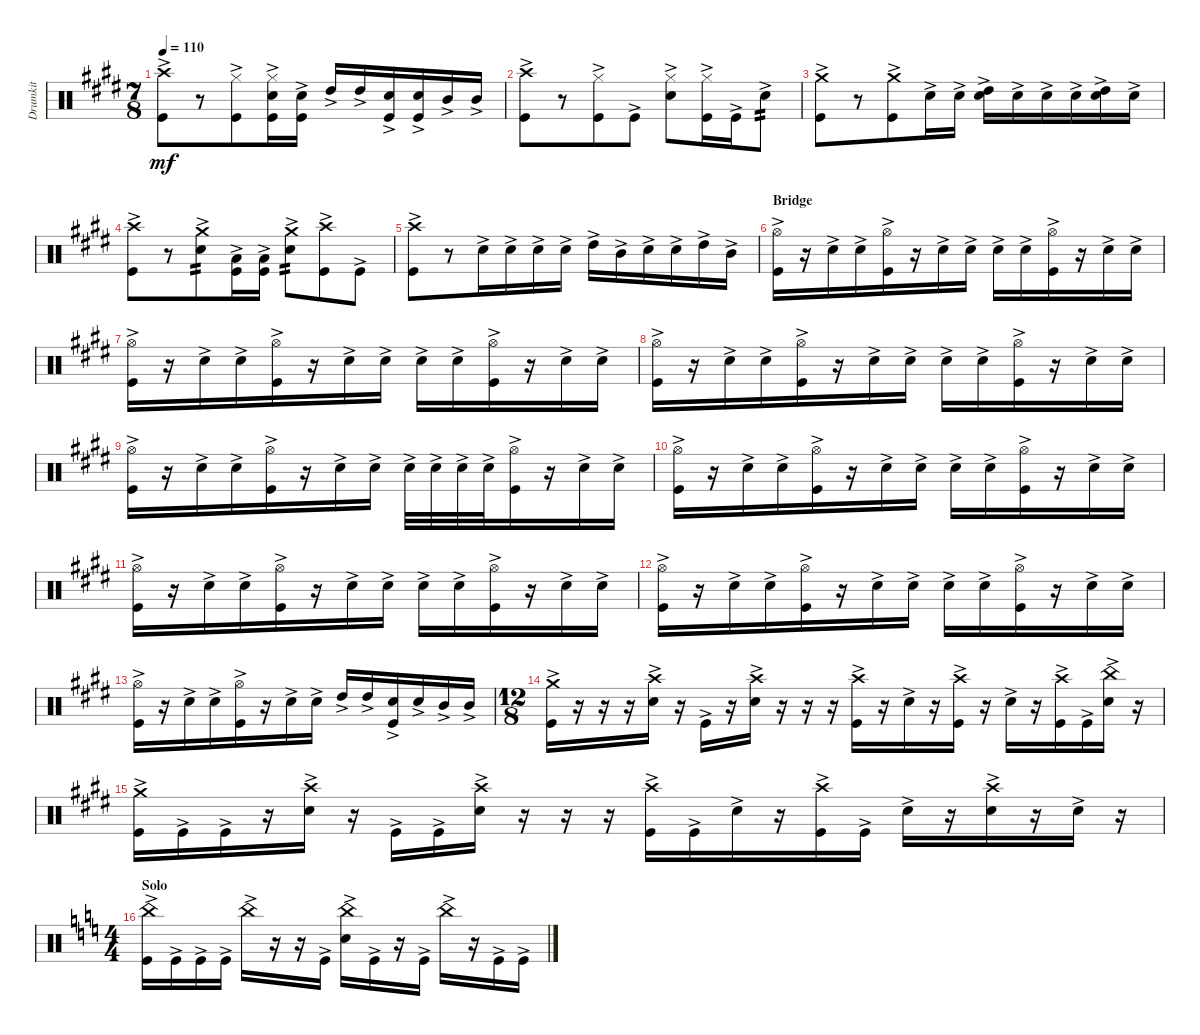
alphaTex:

\track ("Drumkit" "Drumkit") {instrument percussion}
\staff {score}
\articulation defaults
\ts (7 8)
\tempo 110
\clef neutral
\ks c#minor
("Crash high (hit)"{ac} "Kick (hit)"{ac}).8{dy mf} r.8 ("Hi-Hat (closed)"{ac} "Kick (hit)"{ac}).8 ("Hi-Hat (closed)"{ac} "Snare (hit) 2"{ac} "Kick (hit)"{ac}).16 ("Snare (hit) 2"{ac} "Kick (hit)"{ac}).16 "High Tom (hit)"{ac}.16 "High Tom (hit)"{ac}.16 ("Snare (hit) 2"{ac} "Kick (hit)"{ac}).16 ("Snare (hit) 2"{ac} "Kick (hit)"{ac}).16 "Mid Tom (hit)"{ac}.16 "Mid Tom (hit)"{ac}.16 |
("Crash high (hit)"{ac} "Kick (hit)"{ac}).8 r.8 ("Hi-Hat (closed)"{ac} "Kick (hit)"{ac}).8 "Kick (hit)"{ac}.8 ("Hi-Hat (closed)"{ac} "Snare (hit) 2"{ac}).8 ("Hi-Hat (closed)"{ac} "Kick (hit)"{ac}).16 "Kick (hit)"{ac}.16 "Snare (hit) 2"{ac}.8{tp 2} |
("Crash medium (hit)"{ac} "Kick (hit)"{ac}).8 r.8 ("Crash medium (hit)"{ac} "Kick (hit)"{ac}).8 "Snare (hit) 2"{ac}.16 "Snare (hit) 2"{ac}.16 ("High Tom (hit)"{ac} "Snare (hit) 2"{ac}).16 "Snare (hit) 2"{ac}.16 "Snare (hit) 2"{ac}.16 "Snare (hit) 2"{ac}.16 ("High Tom (hit)"{ac} "Snare (hit) 2"{ac}).16 "Snare (hit) 2"{ac}.16 |
("Crash high (hit)"{ac} "Kick (hit)"{ac}).8 r.8 ("Crash medium (hit)"{ac} "Snare (hit) 2"{ac}).8{tp 2} ("Low Floor Tom (hit)"{ac} "Kick (hit)"{ac}).16 ("Low Floor Tom (hit)"{ac} "Kick (hit)"{ac}).16 ("Crash medium (hit)"{ac} "Snare (hit) 2"{ac}).8{tp 2} ("Crash high (hit)"{ac} "Kick (hit)"{ac}).8 "Kick (hit)"{ac}.8 |
("Crash high (hit)"{ac} "Kick (hit)"{ac}).8 r.8 "Snare (hit) 2"{ac}.16 "Snare (hit) 2"{ac}.16 "Snare (hit) 2"{ac}.16 "Snare (hit) 2"{ac}.16 "High Tom (hit)"{ac}.16 "Mid Tom (hit)"{ac}.16 "Snare (hit) 2"{ac}.16 "Snare (hit) 2"{ac}.16 "High Tom (hit)"{ac}.16 "Mid Tom (hit)"{ac}.16 |
\section ("" "Bridge")
("Hi-Hat (open)"{ac} "Kick (hit)"{ac}).16 r.16 "Snare (hit) 2"{ac}.16 "Snare (hit) 2"{ac}.16 ("Hi-Hat (open)"{ac} "Kick (hit)"{ac}).16 r.16 "Snare (hit) 2"{ac}.16 "Snare (hit) 2"{ac}.16 "Snare (hit) 2"{ac}.16 "Snare (hit) 2"{ac}.16 ("Hi-Hat (open)"{ac} "Kick (hit)"{ac}).16 r.16 "Snare (hit) 2"{ac}.16 "Snare (hit) 2"{ac}.16 |
("Hi-Hat (open)"{ac} "Kick (hit)"{ac}).16 r.16 "Snare (hit) 2"{ac}.16 "Snare (hit) 2"{ac}.16 ("Hi-Hat (open)"{ac} "Kick (hit)"{ac}).16 r.16 "Snare (hit) 2"{ac}.16 "Snare (hit) 2"{ac}.16 "Snare (hit) 2"{ac}.16 "Snare (hit) 2"{ac}.16 ("Hi-Hat (open)"{ac} "Kick (hit)"{ac}).16 r.16 "Snare (hit) 2"{ac}.16 "Snare (hit) 2"{ac}.16 |
("Hi-Hat (open)"{ac} "Kick (hit)"{ac}).16 r.16 "Snare (hit) 2"{ac}.16 "Snare (hit) 2"{ac}.16 ("Hi-Hat (open)"{ac} "Kick (hit)"{ac}).16 r.16 "Snare (hit) 2"{ac}.16 "Snare (hit) 2"{ac}.16 "Snare (hit) 2"{ac}.16 "Snare (hit) 2"{ac}.16 ("Hi-Hat (open)"{ac} "Kick (hit)"{ac}).16 r.16 "Snare (hit) 2"{ac}.16 "Snare (hit) 2"{ac}.16 |
("Hi-Hat (open)"{ac} "Kick (hit)"{ac}).16 r.16 "Snare (hit) 2"{ac}.16 "Snare (hit) 2"{ac}.16 ("Hi-Hat (open)"{ac} "Kick (hit)"{ac}).16 r.16 "Snare (hit) 2"{ac}.16 "Snare (hit) 2"{ac}.16 "Snare (hit) 2"{ac}.32 "Snare (hit) 2"{ac}.32 "Snare (hit) 2"{ac}.32 "Snare (hit) 2"{ac}.32 ("Hi-Hat (open)"{ac} "Kick (hit)"{ac}).16 r.16 "Snare (hit) 2"{ac}.16 "Snare (hit) 2"{ac}.16 |
("Hi-Hat (open)"{ac} "Kick (hit)"{ac}).16 r.16 "Snare (hit) 2"{ac}.16 "Snare (hit) 2"{ac}.16 ("Hi-Hat (open)"{ac} "Kick (hit)"{ac}).16 r.16 "Snare (hit) 2"{ac}.16 "Snare (hit) 2"{ac}.16 "Snare (hit) 2"{ac}.16 "Snare (hit) 2"{ac}.16 ("Hi-Hat (open)"{ac} "Kick (hit)"{ac}).16 r.16 "Snare (hit) 2"{ac}.16 "Snare (hit) 2"{ac}.16 |
("Hi-Hat (open)"{ac} "Kick (hit)"{ac}).16 r.16 "Snare (hit) 2"{ac}.16 "Snare (hit) 2"{ac}.16 ("Hi-Hat (open)"{ac} "Kick (hit)"{ac}).16 r.16 "Snare (hit) 2"{ac}.16 "Snare (hit) 2"{ac}.16 "Snare (hit) 2"{ac}.16 "Snare (hit) 2"{ac}.16 ("Hi-Hat (open)"{ac} "Kick (hit)"{ac}).16 r.16 "Snare (hit) 2"{ac}.16 "Snare (hit) 2"{ac}.16 |
("Hi-Hat (open)"{ac} "Kick (hit)"{ac}).16 r.16 "Snare (hit) 2"{ac}.16 "Snare (hit) 2"{ac}.16 ("Hi-Hat (open)"{ac} "Kick (hit)"{ac}).16 r.16 "Snare (hit) 2"{ac}.16 "Snare (hit) 2"{ac}.16 "Snare (hit) 2"{ac}.16 "Snare (hit) 2"{ac}.16 ("Hi-Hat (open)"{ac} "Kick (hit)"{ac}).16 r.16 "Snare (hit) 2"{ac}.16 "Snare (hit) 2"{ac}.16 |
("Hi-Hat (open)"{ac} "Kick (hit)"{ac}).16 r.16 "Snare (hit) 2"{ac}.16 "Snare (hit) 2"{ac}.16 ("Hi-Hat (open)"{ac} "Kick (hit)"{ac}).16 r.16 "Snare (hit) 2"{ac}.16 "Snare (hit) 2"{ac}.16 "High Tom (hit)"{ac}.16 "High Tom (hit)"{ac}.16 ("Snare (hit) 2"{ac} "Kick (hit)"{ac}).16 "Snare (hit) 2"{ac}.16 "Mid Tom (hit)"{ac}.16 "Mid Tom (hit)"{ac}.16 |
\ts (12 8)
("Crash medium (hit)"{ac} "Kick (hit)"{ac}).16 r.16 r.16 r.16 ("Crash high (hit)"{ac} "Snare (hit) 2"{ac}).16 r.16 "Kick (hit)"{ac}.16 r.16 ("Crash high (hit)"{ac} "Snare (hit) 2"{ac}).16 r.16 r.16 r.16 ("Crash high (hit)"{ac} "Kick (hit)"{ac}).16 r.16 "Snare (hit) 2"{ac}.16 r.16 ("Crash high (hit)"{ac} "Kick (hit)"{ac}).16 r.16 "Snare (hit) 2"{ac}.16 r.16 ("Crash high (hit)"{ac} "Kick (hit)"{ac}).16 "Kick (hit)"{ac}.16 ("China (hit)"{ac} "Snare (hit) 2"{ac}).16 r.16 |
("Crash medium (hit)"{ac} "Kick (hit)"{ac}).16 "Kick (hit)"{ac}.16 "Kick (hit)"{ac}.16 r.16 ("Crash high (hit)"{ac} "Snare (hit) 2"{ac}).16 r.16 "Kick (hit)"{ac}.16 "Kick (hit)"{ac}.16 ("Crash high (hit)"{ac} "Snare (hit) 2"{ac}).16 r.16 r.16 r.16 ("Crash high (hit)"{ac} "Kick (hit)"{ac}).16 "Kick (hit)"{ac}.16 "Snare (hit) 2"{ac}.16 r.16 ("Crash high (hit)"{ac} "Kick (hit)"{ac}).16 "Kick (hit)"{ac}.16 "Snare (hit) 2"{ac}.16 r.16 ("Crash high (hit)"{ac} "Snare (hit) 2"{ac}).16 r.16 "Snare (hit) 2"{ac}.16 r.16 |
\ts (4 4)
\section ("" "Solo")
\ks c
("China (hit)"{ac} "Kick (hit)"{ac}).16 "Kick (hit)"{ac}.16 "Kick (hit)"{ac}.16 "Kick (hit)"{ac}.16 "China (hit)"{ac}.16 r.16 r.16 "Kick (hit)"{ac}.16 ("China (hit)"{ac} "Snare (hit) 2"{ac}).16 "Kick (hit)"{ac}.16 r.16 "Kick (hit)"{ac}.16 "China (hit)"{ac}.16 r.16 "Kick (hit)"{ac}.16 "Kick (hit)"{ac}.16
